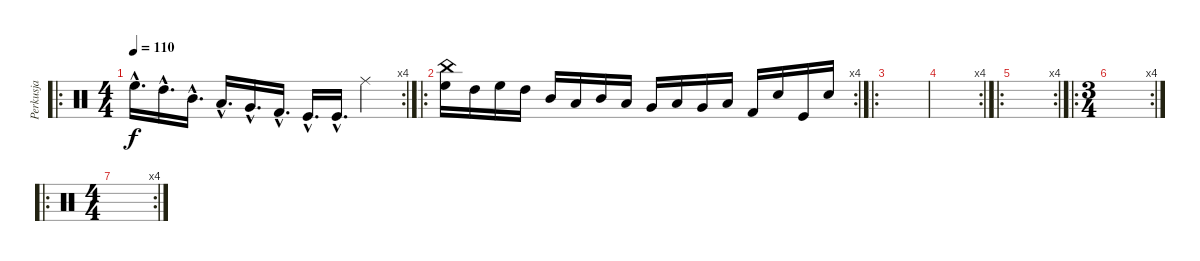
\track ("Perkusja" "Perkusja") {instrument percussion}
\staff {score}
\articulation defaults
\ro
\rc 4
\ts (4 4)
\tempo 110
\clef neutral
\ks c "High Floor Tom (hit)"{hac}.16{d dy f} "High Tom (hit)"{hac}.16{d} "Mid Tom (hit)"{hac}.16{d} "Low Tom (hit)"{hac}.16{d} "Very Low Tom (hit)"{hac}.16{d} "Kick (hit) 2"{hac}.16{d} "Kick (hit)"{hac}.16{d} "Kick (hit)"{hac}.16{d} "Ride (middle)".4
|
\ro
\rc 4
("China (hit)" "High Floor Tom (hit)").16 "High Tom (hit)".16 "High Floor Tom (hit)".16 "High Tom (hit)".16 "Mid Tom (hit)".16 "Low Tom (hit)".16 "Mid Tom (hit)".16 "Low Tom (hit)".16 "Very Low Tom (hit)".16 "Low Floor Tom (hit)".16 "Very Low Tom (hit)".16 "Low Floor Tom (hit)".16 "Kick (hit) 2".16 "Electric Snare (hit)".16 "Kick (hit)".16 "Snare (hit) 2".16 |
\ro
|
\rc 4
|
\ro
\rc 4
|
\ro
\rc 4
\ts (3 4)
|
\ro
\rc 4
\ts (4 4)
